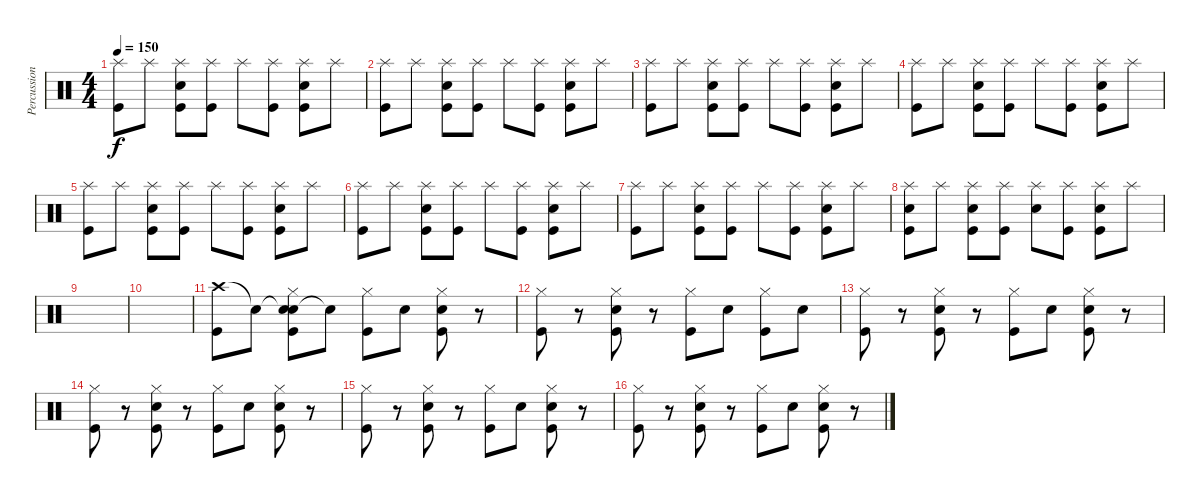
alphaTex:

\track ("Percussion" "Percussion") {instrument percussion}
\staff {score}
\articulation defaults
\ts (4 4)
\tempo 150
\clef neutral
\ks c
("Splash (hit)" "Kick (hit)").8{dy f} "Splash (hit)".8 ("Splash (hit)" "Snare (hit) 2" "Kick (hit)").8 ("Splash (hit)" "Kick (hit)").8 "Splash (hit)".8 ("Splash (hit)" "Kick (hit)").8 ("Splash (hit)" "Snare (hit) 2" "Kick (hit)").8 "Splash (hit)".8 |
("Splash (hit)" "Kick (hit)").8 "Splash (hit)".8 ("Splash (hit)" "Snare (hit) 2" "Kick (hit)").8 ("Splash (hit)" "Kick (hit)").8 "Splash (hit)".8 ("Splash (hit)" "Kick (hit)").8 ("Splash (hit)" "Snare (hit) 2" "Kick (hit)").8 "Splash (hit)".8 |
("Splash (hit)" "Kick (hit)").8 "Splash (hit)".8 ("Splash (hit)" "Snare (hit) 2" "Kick (hit)").8 ("Splash (hit)" "Kick (hit)").8 "Splash (hit)".8 ("Splash (hit)" "Kick (hit)").8 ("Splash (hit)" "Snare (hit) 2" "Kick (hit)").8 "Splash (hit)".8 |
("Splash (hit)" "Kick (hit)").8 "Splash (hit)".8 ("Splash (hit)" "Snare (hit) 2" "Kick (hit)").8 ("Splash (hit)" "Kick (hit)").8 "Splash (hit)".8 ("Splash (hit)" "Kick (hit)").8 ("Splash (hit)" "Snare (hit) 2" "Kick (hit)").8 "Splash (hit)".8 |
("Splash (hit)" "Kick (hit)").8 "Splash (hit)".8 ("Splash (hit)" "Snare (hit) 2" "Kick (hit)").8 ("Splash (hit)" "Kick (hit)").8 "Splash (hit)".8 ("Splash (hit)" "Kick (hit)").8 ("Splash (hit)" "Snare (hit) 2" "Kick (hit)").8 "Splash (hit)".8 |
("Splash (hit)" "Kick (hit)").8 "Splash (hit)".8 ("Splash (hit)" "Snare (hit) 2" "Kick (hit)").8 ("Splash (hit)" "Kick (hit)").8 "Splash (hit)".8 ("Splash (hit)" "Kick (hit)").8 ("Splash (hit)" "Snare (hit) 2" "Kick (hit)").8 "Splash (hit)".8 |
("Splash (hit)" "Kick (hit)").8 "Splash (hit)".8 ("Splash (hit)" "Snare (hit) 2" "Kick (hit)").8 ("Splash (hit)" "Kick (hit)").8 "Splash (hit)".8 ("Splash (hit)" "Kick (hit)").8 ("Splash (hit)" "Snare (hit) 2" "Kick (hit)").8 "Splash (hit)".8 |
("Splash (hit)" "Snare (hit) 2" "Kick (hit)").8 "Splash (hit)".8 ("Splash (hit)" "Snare (hit) 2" "Kick (hit)").8 ("Splash (hit)" "Kick (hit)").8 ("Splash (hit)" "Snare (hit) 2").8 ("Splash (hit)" "Kick (hit)").8 ("Splash (hit)" "Snare (hit) 2" "Kick (hit)").8 "Splash (hit)".8 |
|
|
("Crash high (hit)" "Kick (hit)").8 "Snare (hit)"{t}.8 ("Snare (hit)"{t} "Hi-Hat (closed)" "Snare (hit) 2" "Kick (hit)").8 "Snare (hit)"{t}.8 ("Hi-Hat (closed)" "Kick (hit)").8 "Snare (hit) 2".8 ("Hi-Hat (closed)" "Snare (hit) 2" "Kick (hit)").8 r.8 |
("Hi-Hat (closed)" "Kick (hit)").8 r.8 ("Hi-Hat (closed)" "Snare (hit) 2" "Kick (hit)").8 r.8 ("Hi-Hat (closed)" "Kick (hit)").8 "Snare (hit) 2".8 ("Hi-Hat (closed)" "Kick (hit)").8 "Snare (hit) 2".8 |
("Hi-Hat (closed)" "Kick (hit)").8 r.8 ("Hi-Hat (closed)" "Snare (hit) 2" "Kick (hit)").8 r.8 ("Hi-Hat (closed)" "Kick (hit)").8 "Snare (hit) 2".8 ("Hi-Hat (closed)" "Snare (hit) 2" "Kick (hit)").8 r.8 |
("Hi-Hat (closed)" "Kick (hit)").8 r.8 ("Hi-Hat (closed)" "Snare (hit) 2" "Kick (hit)").8 r.8 ("Hi-Hat (closed)" "Kick (hit)").8 "Snare (hit) 2".8 ("Hi-Hat (closed)" "Snare (hit) 2" "Kick (hit)").8 r.8 |
("Hi-Hat (closed)" "Kick (hit)").8 r.8 ("Hi-Hat (closed)" "Snare (hit) 2" "Kick (hit)").8 r.8 ("Hi-Hat (closed)" "Kick (hit)").8 "Snare (hit) 2".8 ("Hi-Hat (closed)" "Snare (hit) 2" "Kick (hit)").8 r.8 |
("Hi-Hat (closed)" "Kick (hit)").8 r.8 ("Hi-Hat (closed)" "Snare (hit) 2" "Kick (hit)").8 r.8 ("Hi-Hat (closed)" "Kick (hit)").8 "Snare (hit) 2".8 ("Hi-Hat (closed)" "Snare (hit) 2" "Kick (hit)").8 r.8
